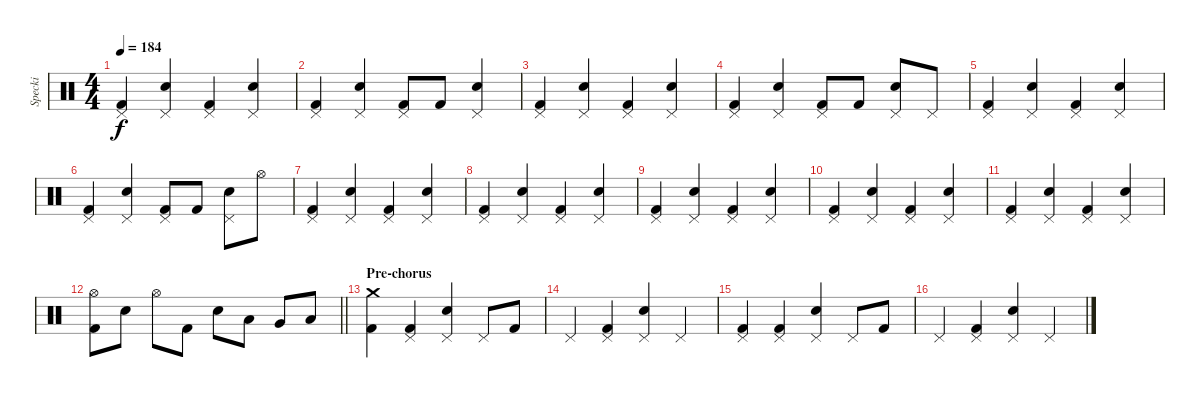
\track ("Specki" "Specki") {instrument percussion}
\staff {score}
\articulation defaults
\ts (4 4)
\tempo 184
\clef neutral
\ks c
("Pedal Hi-Hat (hit)" "Kick (hit) 2").4{dy f} ("Pedal Hi-Hat (hit)" "Electric Snare (hit)").4 ("Pedal Hi-Hat (hit)" "Kick (hit) 2").4 ("Pedal Hi-Hat (hit)" "Electric Snare (hit)").4 |
("Pedal Hi-Hat (hit)" "Kick (hit) 2").4 ("Pedal Hi-Hat (hit)" "Electric Snare (hit)").4 ("Pedal Hi-Hat (hit)" "Kick (hit) 2").8 "Kick (hit) 2".8 ("Pedal Hi-Hat (hit)" "Electric Snare (hit)").4 |
("Pedal Hi-Hat (hit)" "Kick (hit) 2").4 ("Pedal Hi-Hat (hit)" "Electric Snare (hit)").4 ("Pedal Hi-Hat (hit)" "Kick (hit) 2").4 ("Pedal Hi-Hat (hit)" "Electric Snare (hit)").4 |
("Pedal Hi-Hat (hit)" "Kick (hit) 2").4 ("Pedal Hi-Hat (hit)" "Electric Snare (hit)").4 ("Pedal Hi-Hat (hit)" "Kick (hit) 2").8 "Kick (hit) 2".8 ("Pedal Hi-Hat (hit)" "Electric Snare (hit)").8 "Pedal Hi-Hat (hit)".8 |
("Pedal Hi-Hat (hit)" "Kick (hit) 2").4 ("Pedal Hi-Hat (hit)" "Electric Snare (hit)").4 ("Pedal Hi-Hat (hit)" "Kick (hit) 2").4 ("Pedal Hi-Hat (hit)" "Electric Snare (hit)").4 |
("Pedal Hi-Hat (hit)" "Kick (hit) 2").4 ("Pedal Hi-Hat (hit)" "Electric Snare (hit)").4 ("Pedal Hi-Hat (hit)" "Kick (hit) 2").8 "Kick (hit) 2".8 ("Pedal Hi-Hat (hit)" "Electric Snare (hit)").8 "Hi-Hat (open)".8 |
("Pedal Hi-Hat (hit)" "Kick (hit) 2").4 ("Pedal Hi-Hat (hit)" "Electric Snare (hit)").4 ("Pedal Hi-Hat (hit)" "Kick (hit) 2").4 ("Pedal Hi-Hat (hit)" "Electric Snare (hit)").4 |
("Pedal Hi-Hat (hit)" "Kick (hit) 2").4 ("Pedal Hi-Hat (hit)" "Electric Snare (hit)").4 ("Pedal Hi-Hat (hit)" "Kick (hit) 2").4 ("Pedal Hi-Hat (hit)" "Electric Snare (hit)").4 |
("Pedal Hi-Hat (hit)" "Kick (hit) 2").4 ("Pedal Hi-Hat (hit)" "Electric Snare (hit)").4 ("Pedal Hi-Hat (hit)" "Kick (hit) 2").4 ("Pedal Hi-Hat (hit)" "Electric Snare (hit)").4 |
("Pedal Hi-Hat (hit)" "Kick (hit) 2").4 ("Pedal Hi-Hat (hit)" "Electric Snare (hit)").4 ("Pedal Hi-Hat (hit)" "Kick (hit) 2").4 ("Pedal Hi-Hat (hit)" "Electric Snare (hit)").4 |
("Pedal Hi-Hat (hit)" "Kick (hit) 2").4 ("Pedal Hi-Hat (hit)" "Electric Snare (hit)").4 ("Pedal Hi-Hat (hit)" "Kick (hit) 2").4 ("Pedal Hi-Hat (hit)" "Electric Snare (hit)").4 |
\barLineRight lightlight
("Hi-Hat (open)" "Kick (hit) 2").8 "Electric Snare (hit)".8 "Hi-Hat (open)".8 "Kick (hit) 2".8 "Electric Snare (hit)".8 "Low Tom (hit)".8 "Very Low Tom (hit)".8 "Low Floor Tom (hit)".8 |
\section ("" "Pre-chorus")
("Crash medium (hit)" "Kick (hit) 2").4 ("Pedal Hi-Hat (hit)" "Kick (hit) 2").4 ("Pedal Hi-Hat (hit)" "Electric Snare (hit)").4 "Pedal Hi-Hat (hit)".8 "Kick (hit) 2".8 |
"Pedal Hi-Hat (hit)".4 ("Pedal Hi-Hat (hit)" "Kick (hit) 2").4 ("Pedal Hi-Hat (hit)" "Electric Snare (hit)").4 "Pedal Hi-Hat (hit)".4 |
("Pedal Hi-Hat (hit)" "Kick (hit) 2").4 ("Pedal Hi-Hat (hit)" "Kick (hit) 2").4 ("Pedal Hi-Hat (hit)" "Electric Snare (hit)").4 "Pedal Hi-Hat (hit)".8 "Kick (hit) 2".8 |
"Pedal Hi-Hat (hit)".4 ("Pedal Hi-Hat (hit)" "Kick (hit) 2").4 ("Pedal Hi-Hat (hit)" "Electric Snare (hit)").4 "Pedal Hi-Hat (hit)".4
